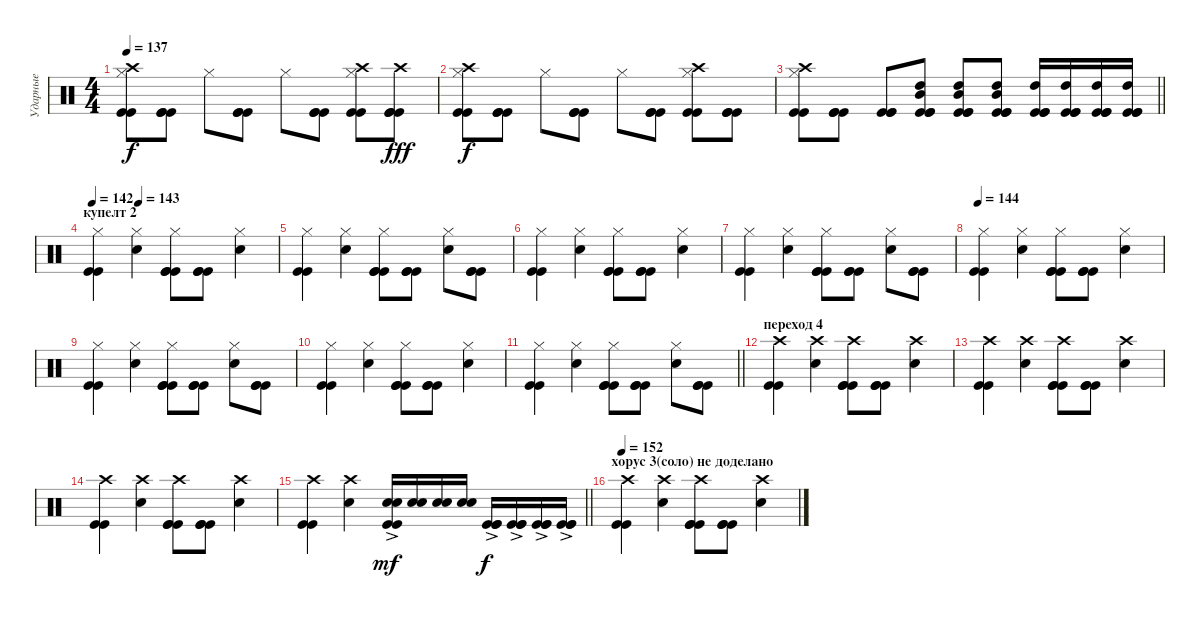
\track ("Ударные" "Ударные") {instrument percussion}
\staff {score}
\articulation defaults
\ts (4 4)
\tempo 137
\clef neutral
\ks c
("Kick (hit)" "Kick (hit)" "Hi-Hat (closed)" "Crash high (hit)").8{dy f} ("Kick (hit)" "Kick (hit)" "Kick (hit)").8 "Hi-Hat (closed)".8 ("Kick (hit)" "Kick (hit)" "Kick (hit)").8 "Hi-Hat (closed)".8 ("Kick (hit)" "Kick (hit)" "Kick (hit)").8 ("Kick (hit)" "Kick (hit)" "Hi-Hat (closed)" "Crash high (hit)").8 ("Kick (hit)" "Kick (hit)" "Kick (hit)" "Crash high (hit)").8{dy fff} |
("Kick (hit)" "Kick (hit)" "Hi-Hat (closed)" "Crash high (hit)").8{dy f} ("Kick (hit)" "Kick (hit)" "Kick (hit)").8 "Hi-Hat (closed)".8 ("Kick (hit)" "Kick (hit)" "Kick (hit)").8 "Hi-Hat (closed)".8 ("Kick (hit)" "Kick (hit)" "Kick (hit)").8 ("Kick (hit)" "Kick (hit)" "Hi-Hat (closed)" "Crash high (hit)").8 ("Kick (hit)" "Kick (hit)" "Kick (hit)").8 |
\barLineRight lightlight
("Kick (hit)" "Kick (hit)" "Hi-Hat (closed)" "Crash high (hit)").8 ("Kick (hit)" "Kick (hit)" "Kick (hit)").8 ("Kick (hit)" "Kick (hit)" "Kick (hit)").8 ("Kick (hit)" "Kick (hit)" "Kick (hit)" "High Tom (hit)" "Mid Tom (hit)").8 ("Kick (hit)" "Kick (hit)" "Kick (hit)" "High Tom (hit)" "Mid Tom (hit)").8 ("Kick (hit)" "Kick (hit)" "Kick (hit)" "High Tom (hit)" "Mid Tom (hit)").8 ("Kick (hit)" "Kick (hit)" "Kick (hit)" "High Tom (hit)").16 ("Kick (hit)" "Kick (hit)" "Kick (hit)" "High Tom (hit)").16 ("Kick (hit)" "Kick (hit)" "Kick (hit)" "High Tom (hit)").16 ("Kick (hit)" "Kick (hit)" "Kick (hit)" "High Tom (hit)").16 |
\section ("" "купелт 2")
\tempo 142
\tempo (143 0.25)
("Hi-Hat (closed)" "Kick (hit)" "Kick (hit)").4 ("Snare (hit) 2" "Hi-Hat (closed)").4 ("Kick (hit)" "Kick (hit)" "Kick (hit)" "Hi-Hat (closed)").8 ("Kick (hit)" "Kick (hit)" "Kick (hit)").8 ("Snare (hit) 2" "Hi-Hat (closed)").4 |
("Hi-Hat (closed)" "Kick (hit)" "Kick (hit)").4 ("Snare (hit) 2" "Hi-Hat (closed)").4 ("Kick (hit)" "Kick (hit)" "Kick (hit)" "Hi-Hat (closed)").8 ("Kick (hit)" "Kick (hit)" "Kick (hit)").8 ("Snare (hit) 2" "Hi-Hat (closed)").8 ("Kick (hit)" "Kick (hit)" "Kick (hit)").8 |
("Hi-Hat (closed)" "Kick (hit)" "Kick (hit)").4 ("Snare (hit) 2" "Hi-Hat (closed)").4 ("Kick (hit)" "Kick (hit)" "Kick (hit)" "Hi-Hat (closed)").8 ("Kick (hit)" "Kick (hit)" "Kick (hit)").8 ("Snare (hit) 2" "Hi-Hat (closed)").4 |
("Hi-Hat (closed)" "Kick (hit)" "Kick (hit)").4 ("Snare (hit) 2" "Hi-Hat (closed)").4 ("Kick (hit)" "Kick (hit)" "Kick (hit)" "Hi-Hat (closed)").8 ("Kick (hit)" "Kick (hit)" "Kick (hit)").8 ("Snare (hit) 2" "Hi-Hat (closed)").8 ("Kick (hit)" "Kick (hit)" "Kick (hit)").8 |
\tempo 144
("Hi-Hat (closed)" "Kick (hit)" "Kick (hit)").4 ("Snare (hit) 2" "Hi-Hat (closed)").4 ("Kick (hit)" "Kick (hit)" "Kick (hit)" "Hi-Hat (closed)").8 ("Kick (hit)" "Kick (hit)" "Kick (hit)").8 ("Snare (hit) 2" "Hi-Hat (closed)").4 |
("Hi-Hat (closed)" "Kick (hit)" "Kick (hit)").4 ("Snare (hit) 2" "Hi-Hat (closed)").4 ("Kick (hit)" "Kick (hit)" "Kick (hit)" "Hi-Hat (closed)").8 ("Kick (hit)" "Kick (hit)" "Kick (hit)").8 ("Snare (hit) 2" "Hi-Hat (closed)").8 ("Kick (hit)" "Kick (hit)" "Kick (hit)").8 |
("Hi-Hat (closed)" "Kick (hit)" "Kick (hit)").4 ("Snare (hit) 2" "Hi-Hat (closed)").4 ("Kick (hit)" "Kick (hit)" "Kick (hit)" "Hi-Hat (closed)").8 ("Kick (hit)" "Kick (hit)" "Kick (hit)").8 ("Snare (hit) 2" "Hi-Hat (closed)").4 |
\barLineRight lightlight
("Hi-Hat (closed)" "Kick (hit)" "Kick (hit)").4 ("Snare (hit) 2" "Hi-Hat (closed)").4 ("Kick (hit)" "Kick (hit)" "Kick (hit)" "Hi-Hat (closed)").8 ("Kick (hit)" "Kick (hit)" "Kick (hit)").8 ("Snare (hit) 2" "Hi-Hat (closed)").8 ("Kick (hit)" "Kick (hit)" "Kick (hit)").8 |
\section ("" "переход 4")
("Crash high (hit)" "Kick (hit)" "Kick (hit)").4 ("Snare (hit) 2" "Crash high (hit)").4 ("Kick (hit)" "Kick (hit)" "Kick (hit)" "Crash high (hit)").8 ("Kick (hit)" "Kick (hit)" "Kick (hit)").8 ("Snare (hit) 2" "Crash high (hit)").4 |
("Crash high (hit)" "Kick (hit)" "Kick (hit)").4 ("Snare (hit) 2" "Crash high (hit)").4 ("Kick (hit)" "Kick (hit)" "Kick (hit)" "Crash high (hit)").8 ("Kick (hit)" "Kick (hit)" "Kick (hit)").8 ("Snare (hit) 2" "Crash high (hit)").4 |
("Crash high (hit)" "Kick (hit)" "Kick (hit)").4 ("Snare (hit) 2" "Crash high (hit)").4 ("Kick (hit)" "Kick (hit)" "Kick (hit)" "Crash high (hit)").8 ("Kick (hit)" "Kick (hit)" "Kick (hit)").8 ("Snare (hit) 2" "Crash high (hit)").4 |
\barLineRight lightlight
("Crash high (hit)" "Kick (hit)" "Kick (hit)").4 ("Snare (hit) 2" "Crash high (hit)").4 ("Kick (hit)"{ac} "Kick (hit)"{ac} "Snare (hit) 2" "Snare (hit) 2").16{dy mf} ("Snare (hit) 2" "Snare (hit) 2").16 ("Snare (hit) 2" "Snare (hit) 2").16 ("Snare (hit) 2" "Snare (hit) 2").16 ("Kick (hit)"{ac} "Kick (hit)"{ac} "Kick (hit)"{ac}).16{dy f} ("Kick (hit)"{ac} "Kick (hit)"{ac} "Kick (hit)"{ac}).16 ("Kick (hit)"{ac} "Kick (hit)"{ac} "Kick (hit)"{ac}).16 ("Kick (hit)"{ac} "Kick (hit)"{ac} "Kick (hit)"{ac}).16 |
\section ("" "хорус 3(соло) не доделано")
\tempo 144
\tempo 152
("Crash high (hit)" "Kick (hit)" "Kick (hit)").4 ("Snare (hit) 2" "Crash high (hit)").4 ("Kick (hit)" "Kick (hit)" "Kick (hit)" "Crash high (hit)").8 ("Kick (hit)" "Kick (hit)" "Kick (hit)").8 ("Snare (hit) 2" "Crash high (hit)").4
